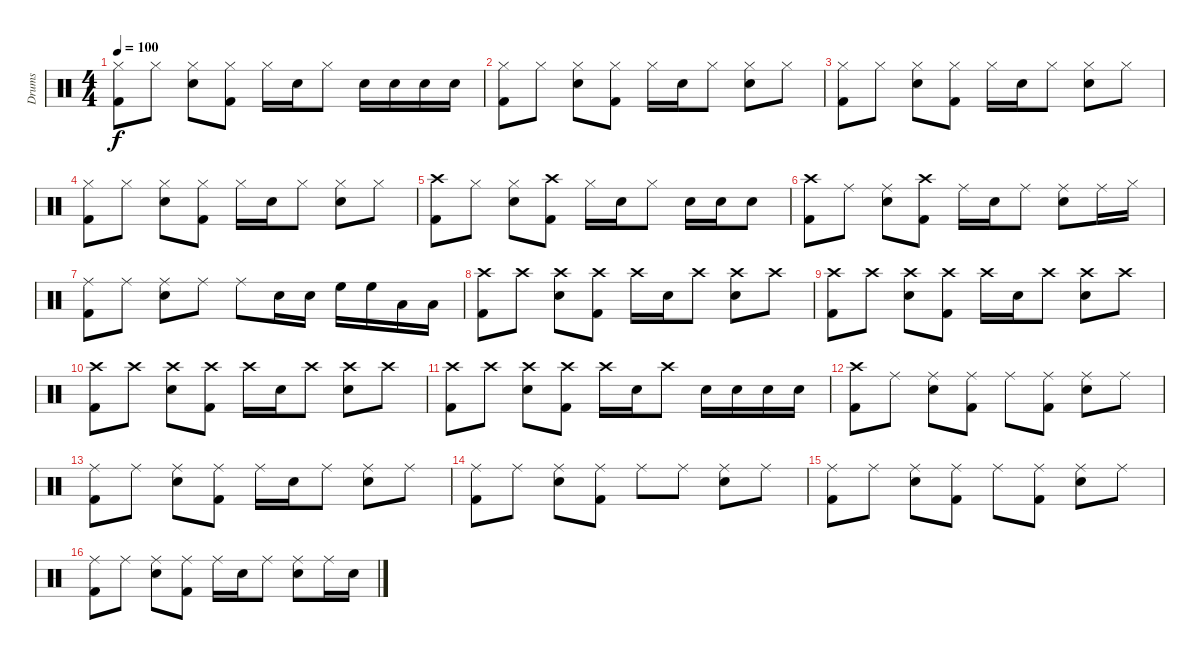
\track ("Drums" "Drums") {instrument percussion}
\staff {score}
\articulation defaults
\ts (4 4)
\tempo 100
\clef neutral
\ks c
("Hi-Hat (closed)" "Kick (hit) 2").8{dy f} "Hi-Hat (closed)".8 ("Hi-Hat (closed)" "Snare (hit) 2").8 ("Hi-Hat (closed)" "Kick (hit) 2").8 "Hi-Hat (closed)".16 "Snare (hit) 2".16 "Hi-Hat (closed)".8 "Snare (hit) 2".16 "Snare (hit) 2".16 "Snare (hit) 2".16 "Snare (hit) 2".16 |
("Hi-Hat (closed)" "Kick (hit) 2").8 "Hi-Hat (closed)".8 ("Hi-Hat (closed)" "Snare (hit) 2").8 ("Hi-Hat (closed)" "Kick (hit) 2").8 "Hi-Hat (closed)".16 "Snare (hit) 2".16 "Hi-Hat (closed)".8 ("Hi-Hat (closed)" "Snare (hit) 2").8 "Hi-Hat (closed)".8 |
("Hi-Hat (closed)" "Kick (hit) 2").8 "Hi-Hat (closed)".8 ("Hi-Hat (closed)" "Snare (hit) 2").8 ("Hi-Hat (closed)" "Kick (hit) 2").8 "Hi-Hat (closed)".16 "Snare (hit) 2".16 "Hi-Hat (closed)".8 ("Hi-Hat (closed)" "Snare (hit) 2").8 "Hi-Hat (closed)".8 |
("Hi-Hat (closed)" "Kick (hit) 2").8 "Hi-Hat (closed)".8 ("Hi-Hat (closed)" "Snare (hit) 2").8 ("Hi-Hat (closed)" "Kick (hit) 2").8 "Hi-Hat (closed)".16 "Snare (hit) 2".16 "Hi-Hat (closed)".8 ("Hi-Hat (closed)" "Snare (hit) 2").8 "Hi-Hat (closed)".8 |
("Crash high (hit)" "Kick (hit) 2").8 "Hi-Hat (closed)".8 ("Hi-Hat (closed)" "Snare (hit) 2").8 ("Crash high (hit)" "Kick (hit) 2").8 "Hi-Hat (closed)".16 "Snare (hit) 2".16 "Hi-Hat (closed)".8 "Snare (hit) 2".16 "Snare (hit) 2".16 "Snare (hit) 2".8 |
("Crash high (hit)" "Kick (hit) 2").8 "Ride (middle)".8 ("Ride (middle)" "Snare (hit) 2").8 ("Crash high (hit)" "Kick (hit) 2").8 "Ride (middle)".16 "Snare (hit) 2".16 "Ride (middle)".8 ("Ride (middle)" "Snare (hit) 2").8 "Ride (middle)".16 "Hi-Hat (closed)".16 |
("Ride (middle)" "Kick (hit) 2").8 "Ride (middle)".8 ("Ride (middle)" "Snare (hit) 2").8 "Ride (middle)".8 "Ride (middle)".8 "Snare (hit) 2".16 "Snare (hit) 2".16 "High Floor Tom (hit)".16 "High Floor Tom (hit)".16 "Low Floor Tom (hit)".16 "Low Floor Tom (hit)".16 |
("Crash high (hit)" "Kick (hit) 2").8 "Crash high (hit)".8 ("Crash high (hit)" "Snare (hit) 2").8 ("Crash high (hit)" "Kick (hit) 2").8 "Crash high (hit)".16 "Snare (hit) 2".16 "Crash high (hit)".8 ("Crash high (hit)" "Snare (hit) 2").8 "Crash high (hit)".8 |
("Crash high (hit)" "Kick (hit) 2").8 "Crash high (hit)".8 ("Crash high (hit)" "Snare (hit) 2").8 ("Crash high (hit)" "Kick (hit) 2").8 "Crash high (hit)".16 "Snare (hit) 2".16 "Crash high (hit)".8 ("Crash high (hit)" "Snare (hit) 2").8 "Crash high (hit)".8 |
("Crash high (hit)" "Kick (hit) 2").8 "Crash high (hit)".8 ("Crash high (hit)" "Snare (hit) 2").8 ("Crash high (hit)" "Kick (hit) 2").8 "Crash high (hit)".16 "Snare (hit) 2".16 "Crash high (hit)".8 ("Crash high (hit)" "Snare (hit) 2").8 "Crash high (hit)".8 |
("Crash high (hit)" "Kick (hit) 2").8 "Crash high (hit)".8 ("Crash high (hit)" "Snare (hit) 2").8 ("Crash high (hit)" "Kick (hit) 2").8 "Crash high (hit)".16 "Snare (hit) 2".16 "Crash high (hit)".8 "Snare (hit) 2".16 "Snare (hit) 2".16 "Snare (hit) 2".16 "Snare (hit) 2".16 |
("Crash high (hit)" "Kick (hit) 2").8 "Ride (middle)".8 ("Ride (middle)" "Snare (hit) 2").8 ("Ride (middle)" "Kick (hit) 2").8 "Ride (middle)".8 ("Ride (middle)" "Kick (hit) 2").8 ("Ride (middle)" "Snare (hit) 2").8 "Ride (middle)".8 |
("Ride (middle)" "Kick (hit) 2").8 "Ride (middle)".8 ("Ride (middle)" "Snare (hit) 2").8 ("Ride (middle)" "Kick (hit) 2").8 "Ride (middle)".16 "Snare (hit) 2".16 "Ride (middle)".8 ("Ride (middle)" "Snare (hit) 2").8 "Ride (middle)".8 |
("Ride (middle)" "Kick (hit) 2").8 "Ride (middle)".8 ("Ride (middle)" "Snare (hit) 2").8 ("Ride (middle)" "Kick (hit) 2").8 "Ride (middle)".8 "Ride (middle)".8 ("Ride (middle)" "Snare (hit) 2").8 "Ride (middle)".8 |
("Ride (middle)" "Kick (hit) 2").8 "Ride (middle)".8 ("Ride (middle)" "Snare (hit) 2").8 ("Ride (middle)" "Kick (hit) 2").8 "Ride (middle)".8 ("Ride (middle)" "Kick (hit) 2").8 ("Ride (middle)" "Snare (hit) 2").8 "Ride (middle)".8 |
("Ride (middle)" "Kick (hit) 2").8 "Ride (middle)".8 ("Ride (middle)" "Snare (hit) 2").8 ("Ride (middle)" "Kick (hit) 2").8 "Ride (middle)".16 "Snare (hit) 2".16 "Ride (middle)".8 ("Ride (middle)" "Snare (hit) 2").8 "Ride (middle)".16 "Snare (hit) 2".16
